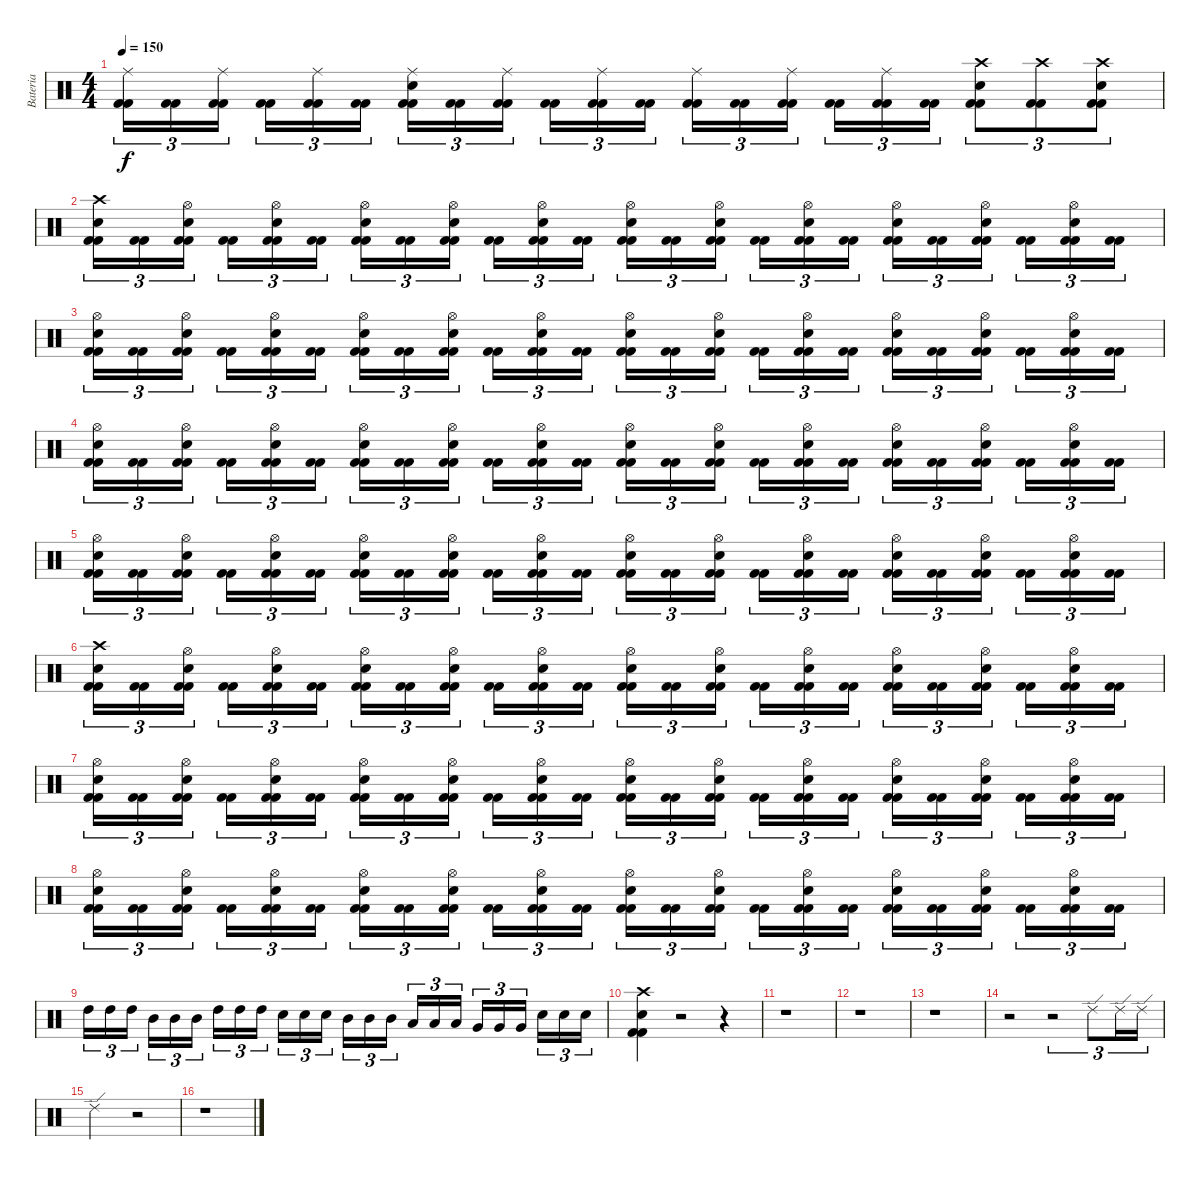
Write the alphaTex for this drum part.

\track ("Bateria" "Bateria") {instrument percussion}
\staff {score}
\articulation defaults
\ts (4 4)
\tempo 150
\clef neutral
\ks c
("Kick (hit) 2" "Kick (hit) 2" "Ride (middle)").16{tu (3 2) dy f} ("Kick (hit) 2" "Kick (hit) 2").16{tu (3 2)} ("Kick (hit) 2" "Kick (hit) 2" "Ride (middle)").16{tu (3 2)} ("Kick (hit) 2" "Kick (hit) 2").16{tu (3 2)} ("Kick (hit) 2" "Kick (hit) 2" "Ride (middle)").16{tu (3 2)} ("Kick (hit) 2" "Kick (hit) 2").16{tu (3 2)} ("Kick (hit) 2" "Kick (hit) 2" "Snare (hit) 2" "Ride (middle)").16{tu (3 2)} ("Kick (hit) 2" "Kick (hit) 2").16{tu (3 2)} ("Kick (hit) 2" "Kick (hit) 2" "Ride (middle)").16{tu (3 2)} ("Kick (hit) 2" "Kick (hit) 2").16{tu (3 2)} ("Kick (hit) 2" "Kick (hit) 2" "Ride (middle)").16{tu (3 2)} ("Kick (hit) 2" "Kick (hit) 2").16{tu (3 2)} ("Kick (hit) 2" "Kick (hit) 2" "Ride (middle)").16{tu (3 2)} ("Kick (hit) 2" "Kick (hit) 2").16{tu (3 2)} ("Kick (hit) 2" "Kick (hit) 2" "Ride (middle)").16{tu (3 2)} ("Kick (hit) 2" "Kick (hit) 2").16{tu (3 2)} ("Kick (hit) 2" "Kick (hit) 2" "Ride (middle)").16{tu (3 2)} ("Kick (hit) 2" "Kick (hit) 2").16{tu (3 2)} ("Kick (hit) 2" "Kick (hit) 2" "Snare (hit) 2" "Crash high (hit)").8{tu (3 2)} ("Kick (hit) 2" "Kick (hit) 2" "Crash high (hit)").8{tu (3 2)} ("Kick (hit) 2" "Kick (hit) 2" "Snare (hit) 2" "Crash high (hit)").8{tu (3 2)} |
("Kick (hit) 2" "Kick (hit) 2" "Snare (hit) 2" "Crash high (hit)").16{tu (3 2)} ("Kick (hit) 2" "Kick (hit) 2").16{tu (3 2)} ("Kick (hit) 2" "Kick (hit) 2" "Snare (hit) 2" "Hi-Hat (open)").16{tu (3 2)} ("Kick (hit) 2" "Kick (hit) 2").16{tu (3 2)} ("Kick (hit) 2" "Kick (hit) 2" "Snare (hit) 2" "Hi-Hat (open)").16{tu (3 2)} ("Kick (hit) 2" "Kick (hit) 2").16{tu (3 2)} ("Kick (hit) 2" "Kick (hit) 2" "Snare (hit) 2" "Hi-Hat (open)").16{tu (3 2)} ("Kick (hit) 2" "Kick (hit) 2").16{tu (3 2)} ("Kick (hit) 2" "Kick (hit) 2" "Snare (hit) 2" "Hi-Hat (open)").16{tu (3 2)} ("Kick (hit) 2" "Kick (hit) 2").16{tu (3 2)} ("Kick (hit) 2" "Kick (hit) 2" "Snare (hit) 2" "Hi-Hat (open)").16{tu (3 2)} ("Kick (hit) 2" "Kick (hit) 2").16{tu (3 2)} ("Kick (hit) 2" "Kick (hit) 2" "Snare (hit) 2" "Hi-Hat (open)").16{tu (3 2)} ("Kick (hit) 2" "Kick (hit) 2").16{tu (3 2)} ("Kick (hit) 2" "Kick (hit) 2" "Snare (hit) 2" "Hi-Hat (open)").16{tu (3 2)} ("Kick (hit) 2" "Kick (hit) 2").16{tu (3 2)} ("Kick (hit) 2" "Kick (hit) 2" "Snare (hit) 2" "Hi-Hat (open)").16{tu (3 2)} ("Kick (hit) 2" "Kick (hit) 2").16{tu (3 2)} ("Kick (hit) 2" "Kick (hit) 2" "Snare (hit) 2" "Hi-Hat (open)").16{tu (3 2)} ("Kick (hit) 2" "Kick (hit) 2").16{tu (3 2)} ("Kick (hit) 2" "Kick (hit) 2" "Snare (hit) 2" "Hi-Hat (open)").16{tu (3 2)} ("Kick (hit) 2" "Kick (hit) 2").16{tu (3 2)} ("Kick (hit) 2" "Kick (hit) 2" "Snare (hit) 2" "Hi-Hat (open)").16{tu (3 2)} ("Kick (hit) 2" "Kick (hit) 2").16{tu (3 2)} |
("Kick (hit) 2" "Kick (hit) 2" "Snare (hit) 2" "Hi-Hat (open)").16{tu (3 2)} ("Kick (hit) 2" "Kick (hit) 2").16{tu (3 2)} ("Kick (hit) 2" "Kick (hit) 2" "Snare (hit) 2" "Hi-Hat (open)").16{tu (3 2)} ("Kick (hit) 2" "Kick (hit) 2").16{tu (3 2)} ("Kick (hit) 2" "Kick (hit) 2" "Snare (hit) 2" "Hi-Hat (open)").16{tu (3 2)} ("Kick (hit) 2" "Kick (hit) 2").16{tu (3 2)} ("Kick (hit) 2" "Kick (hit) 2" "Snare (hit) 2" "Hi-Hat (open)").16{tu (3 2)} ("Kick (hit) 2" "Kick (hit) 2").16{tu (3 2)} ("Kick (hit) 2" "Kick (hit) 2" "Snare (hit) 2" "Hi-Hat (open)").16{tu (3 2)} ("Kick (hit) 2" "Kick (hit) 2").16{tu (3 2)} ("Kick (hit) 2" "Kick (hit) 2" "Snare (hit) 2" "Hi-Hat (open)").16{tu (3 2)} ("Kick (hit) 2" "Kick (hit) 2").16{tu (3 2)} ("Kick (hit) 2" "Kick (hit) 2" "Snare (hit) 2" "Hi-Hat (open)").16{tu (3 2)} ("Kick (hit) 2" "Kick (hit) 2").16{tu (3 2)} ("Kick (hit) 2" "Kick (hit) 2" "Snare (hit) 2" "Hi-Hat (open)").16{tu (3 2)} ("Kick (hit) 2" "Kick (hit) 2").16{tu (3 2)} ("Kick (hit) 2" "Kick (hit) 2" "Snare (hit) 2" "Hi-Hat (open)").16{tu (3 2)} ("Kick (hit) 2" "Kick (hit) 2").16{tu (3 2)} ("Kick (hit) 2" "Kick (hit) 2" "Snare (hit) 2" "Hi-Hat (open)").16{tu (3 2)} ("Kick (hit) 2" "Kick (hit) 2").16{tu (3 2)} ("Kick (hit) 2" "Kick (hit) 2" "Snare (hit) 2" "Hi-Hat (open)").16{tu (3 2)} ("Kick (hit) 2" "Kick (hit) 2").16{tu (3 2)} ("Kick (hit) 2" "Kick (hit) 2" "Snare (hit) 2" "Hi-Hat (open)").16{tu (3 2)} ("Kick (hit) 2" "Kick (hit) 2").16{tu (3 2)} |
("Kick (hit) 2" "Kick (hit) 2" "Snare (hit) 2" "Hi-Hat (open)").16{tu (3 2)} ("Kick (hit) 2" "Kick (hit) 2").16{tu (3 2)} ("Kick (hit) 2" "Kick (hit) 2" "Snare (hit) 2" "Hi-Hat (open)").16{tu (3 2)} ("Kick (hit) 2" "Kick (hit) 2").16{tu (3 2)} ("Kick (hit) 2" "Kick (hit) 2" "Snare (hit) 2" "Hi-Hat (open)").16{tu (3 2)} ("Kick (hit) 2" "Kick (hit) 2").16{tu (3 2)} ("Kick (hit) 2" "Kick (hit) 2" "Snare (hit) 2" "Hi-Hat (open)").16{tu (3 2)} ("Kick (hit) 2" "Kick (hit) 2").16{tu (3 2)} ("Kick (hit) 2" "Kick (hit) 2" "Snare (hit) 2" "Hi-Hat (open)").16{tu (3 2)} ("Kick (hit) 2" "Kick (hit) 2").16{tu (3 2)} ("Kick (hit) 2" "Kick (hit) 2" "Snare (hit) 2" "Hi-Hat (open)").16{tu (3 2)} ("Kick (hit) 2" "Kick (hit) 2").16{tu (3 2)} ("Kick (hit) 2" "Kick (hit) 2" "Snare (hit) 2" "Hi-Hat (open)").16{tu (3 2)} ("Kick (hit) 2" "Kick (hit) 2").16{tu (3 2)} ("Kick (hit) 2" "Kick (hit) 2" "Snare (hit) 2" "Hi-Hat (open)").16{tu (3 2)} ("Kick (hit) 2" "Kick (hit) 2").16{tu (3 2)} ("Kick (hit) 2" "Kick (hit) 2" "Snare (hit) 2" "Hi-Hat (open)").16{tu (3 2)} ("Kick (hit) 2" "Kick (hit) 2").16{tu (3 2)} ("Kick (hit) 2" "Kick (hit) 2" "Snare (hit) 2" "Hi-Hat (open)").16{tu (3 2)} ("Kick (hit) 2" "Kick (hit) 2").16{tu (3 2)} ("Kick (hit) 2" "Kick (hit) 2" "Snare (hit) 2" "Hi-Hat (open)").16{tu (3 2)} ("Kick (hit) 2" "Kick (hit) 2").16{tu (3 2)} ("Kick (hit) 2" "Kick (hit) 2" "Snare (hit) 2" "Hi-Hat (open)").16{tu (3 2)} ("Kick (hit) 2" "Kick (hit) 2").16{tu (3 2)} |
("Kick (hit) 2" "Kick (hit) 2" "Snare (hit) 2" "Hi-Hat (open)").16{tu (3 2)} ("Kick (hit) 2" "Kick (hit) 2").16{tu (3 2)} ("Kick (hit) 2" "Kick (hit) 2" "Snare (hit) 2" "Hi-Hat (open)").16{tu (3 2)} ("Kick (hit) 2" "Kick (hit) 2").16{tu (3 2)} ("Kick (hit) 2" "Kick (hit) 2" "Snare (hit) 2" "Hi-Hat (open)").16{tu (3 2)} ("Kick (hit) 2" "Kick (hit) 2").16{tu (3 2)} ("Kick (hit) 2" "Kick (hit) 2" "Snare (hit) 2" "Hi-Hat (open)").16{tu (3 2)} ("Kick (hit) 2" "Kick (hit) 2").16{tu (3 2)} ("Kick (hit) 2" "Kick (hit) 2" "Snare (hit) 2" "Hi-Hat (open)").16{tu (3 2)} ("Kick (hit) 2" "Kick (hit) 2").16{tu (3 2)} ("Kick (hit) 2" "Kick (hit) 2" "Snare (hit) 2" "Hi-Hat (open)").16{tu (3 2)} ("Kick (hit) 2" "Kick (hit) 2").16{tu (3 2)} ("Kick (hit) 2" "Kick (hit) 2" "Snare (hit) 2" "Hi-Hat (open)").16{tu (3 2)} ("Kick (hit) 2" "Kick (hit) 2").16{tu (3 2)} ("Kick (hit) 2" "Kick (hit) 2" "Snare (hit) 2" "Hi-Hat (open)").16{tu (3 2)} ("Kick (hit) 2" "Kick (hit) 2").16{tu (3 2)} ("Kick (hit) 2" "Kick (hit) 2" "Snare (hit) 2" "Hi-Hat (open)").16{tu (3 2)} ("Kick (hit) 2" "Kick (hit) 2").16{tu (3 2)} ("Kick (hit) 2" "Kick (hit) 2" "Snare (hit) 2" "Hi-Hat (open)").16{tu (3 2)} ("Kick (hit) 2" "Kick (hit) 2").16{tu (3 2)} ("Kick (hit) 2" "Kick (hit) 2" "Snare (hit) 2" "Hi-Hat (open)").16{tu (3 2)} ("Kick (hit) 2" "Kick (hit) 2").16{tu (3 2)} ("Kick (hit) 2" "Kick (hit) 2" "Snare (hit) 2" "Hi-Hat (open)").16{tu (3 2)} ("Kick (hit) 2" "Kick (hit) 2").16{tu (3 2)} |
("Kick (hit) 2" "Kick (hit) 2" "Snare (hit) 2" "Crash high (hit)").16{tu (3 2)} ("Kick (hit) 2" "Kick (hit) 2").16{tu (3 2)} ("Kick (hit) 2" "Kick (hit) 2" "Snare (hit) 2" "Hi-Hat (open)").16{tu (3 2)} ("Kick (hit) 2" "Kick (hit) 2").16{tu (3 2)} ("Kick (hit) 2" "Kick (hit) 2" "Snare (hit) 2" "Hi-Hat (open)").16{tu (3 2)} ("Kick (hit) 2" "Kick (hit) 2").16{tu (3 2)} ("Kick (hit) 2" "Kick (hit) 2" "Snare (hit) 2" "Hi-Hat (open)").16{tu (3 2)} ("Kick (hit) 2" "Kick (hit) 2").16{tu (3 2)} ("Kick (hit) 2" "Kick (hit) 2" "Snare (hit) 2" "Hi-Hat (open)").16{tu (3 2)} ("Kick (hit) 2" "Kick (hit) 2").16{tu (3 2)} ("Kick (hit) 2" "Kick (hit) 2" "Snare (hit) 2" "Hi-Hat (open)").16{tu (3 2)} ("Kick (hit) 2" "Kick (hit) 2").16{tu (3 2)} ("Kick (hit) 2" "Kick (hit) 2" "Snare (hit) 2" "Hi-Hat (open)").16{tu (3 2)} ("Kick (hit) 2" "Kick (hit) 2").16{tu (3 2)} ("Kick (hit) 2" "Kick (hit) 2" "Snare (hit) 2" "Hi-Hat (open)").16{tu (3 2)} ("Kick (hit) 2" "Kick (hit) 2").16{tu (3 2)} ("Kick (hit) 2" "Kick (hit) 2" "Snare (hit) 2" "Hi-Hat (open)").16{tu (3 2)} ("Kick (hit) 2" "Kick (hit) 2").16{tu (3 2)} ("Kick (hit) 2" "Kick (hit) 2" "Snare (hit) 2" "Hi-Hat (open)").16{tu (3 2)} ("Kick (hit) 2" "Kick (hit) 2").16{tu (3 2)} ("Kick (hit) 2" "Kick (hit) 2" "Snare (hit) 2" "Hi-Hat (open)").16{tu (3 2)} ("Kick (hit) 2" "Kick (hit) 2").16{tu (3 2)} ("Kick (hit) 2" "Kick (hit) 2" "Snare (hit) 2" "Hi-Hat (open)").16{tu (3 2)} ("Kick (hit) 2" "Kick (hit) 2").16{tu (3 2)} |
("Kick (hit) 2" "Kick (hit) 2" "Snare (hit) 2" "Hi-Hat (open)").16{tu (3 2)} ("Kick (hit) 2" "Kick (hit) 2").16{tu (3 2)} ("Kick (hit) 2" "Kick (hit) 2" "Snare (hit) 2" "Hi-Hat (open)").16{tu (3 2)} ("Kick (hit) 2" "Kick (hit) 2").16{tu (3 2)} ("Kick (hit) 2" "Kick (hit) 2" "Snare (hit) 2" "Hi-Hat (open)").16{tu (3 2)} ("Kick (hit) 2" "Kick (hit) 2").16{tu (3 2)} ("Kick (hit) 2" "Kick (hit) 2" "Snare (hit) 2" "Hi-Hat (open)").16{tu (3 2)} ("Kick (hit) 2" "Kick (hit) 2").16{tu (3 2)} ("Kick (hit) 2" "Kick (hit) 2" "Snare (hit) 2" "Hi-Hat (open)").16{tu (3 2)} ("Kick (hit) 2" "Kick (hit) 2").16{tu (3 2)} ("Kick (hit) 2" "Kick (hit) 2" "Snare (hit) 2" "Hi-Hat (open)").16{tu (3 2)} ("Kick (hit) 2" "Kick (hit) 2").16{tu (3 2)} ("Kick (hit) 2" "Kick (hit) 2" "Snare (hit) 2" "Hi-Hat (open)").16{tu (3 2)} ("Kick (hit) 2" "Kick (hit) 2").16{tu (3 2)} ("Kick (hit) 2" "Kick (hit) 2" "Snare (hit) 2" "Hi-Hat (open)").16{tu (3 2)} ("Kick (hit) 2" "Kick (hit) 2").16{tu (3 2)} ("Kick (hit) 2" "Kick (hit) 2" "Snare (hit) 2" "Hi-Hat (open)").16{tu (3 2)} ("Kick (hit) 2" "Kick (hit) 2").16{tu (3 2)} ("Kick (hit) 2" "Kick (hit) 2" "Snare (hit) 2" "Hi-Hat (open)").16{tu (3 2)} ("Kick (hit) 2" "Kick (hit) 2").16{tu (3 2)} ("Kick (hit) 2" "Kick (hit) 2" "Snare (hit) 2" "Hi-Hat (open)").16{tu (3 2)} ("Kick (hit) 2" "Kick (hit) 2").16{tu (3 2)} ("Kick (hit) 2" "Kick (hit) 2" "Snare (hit) 2" "Hi-Hat (open)").16{tu (3 2)} ("Kick (hit) 2" "Kick (hit) 2").16{tu (3 2)} |
("Kick (hit) 2" "Kick (hit) 2" "Snare (hit) 2" "Hi-Hat (open)").16{tu (3 2)} ("Kick (hit) 2" "Kick (hit) 2").16{tu (3 2)} ("Kick (hit) 2" "Kick (hit) 2" "Snare (hit) 2" "Hi-Hat (open)").16{tu (3 2)} ("Kick (hit) 2" "Kick (hit) 2").16{tu (3 2)} ("Kick (hit) 2" "Kick (hit) 2" "Snare (hit) 2" "Hi-Hat (open)").16{tu (3 2)} ("Kick (hit) 2" "Kick (hit) 2").16{tu (3 2)} ("Kick (hit) 2" "Kick (hit) 2" "Snare (hit) 2" "Hi-Hat (open)").16{tu (3 2)} ("Kick (hit) 2" "Kick (hit) 2").16{tu (3 2)} ("Kick (hit) 2" "Kick (hit) 2" "Snare (hit) 2" "Hi-Hat (open)").16{tu (3 2)} ("Kick (hit) 2" "Kick (hit) 2").16{tu (3 2)} ("Kick (hit) 2" "Kick (hit) 2" "Snare (hit) 2" "Hi-Hat (open)").16{tu (3 2)} ("Kick (hit) 2" "Kick (hit) 2").16{tu (3 2)} ("Kick (hit) 2" "Kick (hit) 2" "Snare (hit) 2" "Hi-Hat (open)").16{tu (3 2)} ("Kick (hit) 2" "Kick (hit) 2").16{tu (3 2)} ("Kick (hit) 2" "Kick (hit) 2" "Snare (hit) 2" "Hi-Hat (open)").16{tu (3 2)} ("Kick (hit) 2" "Kick (hit) 2").16{tu (3 2)} ("Kick (hit) 2" "Kick (hit) 2" "Snare (hit) 2" "Hi-Hat (open)").16{tu (3 2)} ("Kick (hit) 2" "Kick (hit) 2").16{tu (3 2)} ("Kick (hit) 2" "Kick (hit) 2" "Snare (hit) 2" "Hi-Hat (open)").16{tu (3 2)} ("Kick (hit) 2" "Kick (hit) 2").16{tu (3 2)} ("Kick (hit) 2" "Kick (hit) 2" "Snare (hit) 2" "Hi-Hat (open)").16{tu (3 2)} ("Kick (hit) 2" "Kick (hit) 2").16{tu (3 2)} ("Kick (hit) 2" "Kick (hit) 2" "Snare (hit) 2" "Hi-Hat (open)").16{tu (3 2)} ("Kick (hit) 2" "Kick (hit) 2").16{tu (3 2)} |
"High Tom (hit)".16{tu (3 2)} "High Tom (hit)".16{tu (3 2)} "High Tom (hit)".16{tu (3 2)} "Mid Tom (hit)".16{tu (3 2)} "Mid Tom (hit)".16{tu (3 2)} "Mid Tom (hit)".16{tu (3 2)} "High Tom (hit)".16{tu (3 2)} "High Tom (hit)".16{tu (3 2)} "High Tom (hit)".16{tu (3 2)} "Snare (hit) 2".16{tu (3 2)} "Snare (hit) 2".16{tu (3 2)} "Snare (hit) 2".16{tu (3 2)} "Mid Tom (hit)".16{tu (3 2)} "Mid Tom (hit)".16{tu (3 2)} "Mid Tom (hit)".16{tu (3 2)} "Low Tom (hit)".16{tu (3 2)} "Low Tom (hit)".16{tu (3 2)} "Low Tom (hit)".16{tu (3 2)} "Very Low Tom (hit)".16{tu (3 2)} "Very Low Tom (hit)".16{tu (3 2)} "Very Low Tom (hit)".16{tu (3 2)} "Snare (hit) 2".16{tu (3 2)} "Snare (hit) 2".16{tu (3 2)} "Snare (hit) 2".16{tu (3 2)} |
("Kick (hit) 2" "Kick (hit) 2" "Snare (hit) 2" "Crash high (hit)").4 r.2 r.4 |
r.1 |
r.1 |
r.1 |
r.2 r.2{tu (3 2)} "Ride (edge) 2".8{tu (3 2)} "Ride (edge) 2".16{tu (3 2)} "Ride (edge) 2".16{tu (3 2)} |
"Ride (edge) 2".2 r.2 |
r.1
